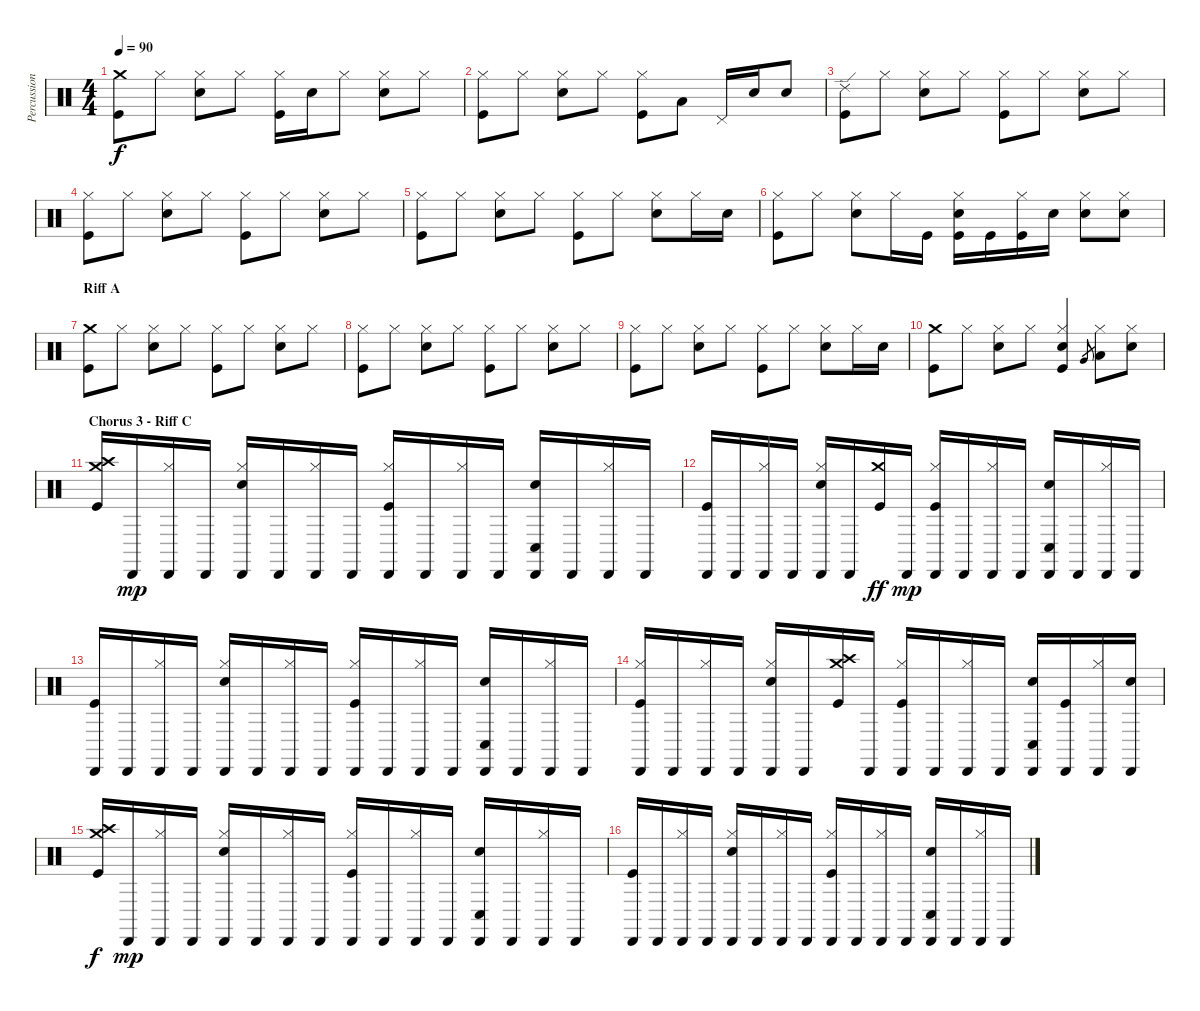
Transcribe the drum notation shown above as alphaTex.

\track ("Percussion (DK 0)" "Percussion") {instrument percussion}
\staff {score}
\articulation defaults
\ts (4 4)
\tempo 90
\clef neutral
\ks c
("Crash medium (hit)" "Kick (hit)").8{dy f} "Hi-Hat (closed)".8 ("Hi-Hat (closed)" "Electric Snare (hit)").8 "Hi-Hat (closed)".8 ("Hi-Hat (closed)" "Kick (hit)").16 "Electric Snare (hit)".16 "Hi-Hat (closed)".8 ("Hi-Hat (closed)" "Electric Snare (hit)").8 "Hi-Hat (closed)".8 |
("Hi-Hat (closed)" "Kick (hit)").8 "Hi-Hat (closed)".8 ("Hi-Hat (closed)" "Electric Snare (hit)").8 "Hi-Hat (closed)".8 ("Hi-Hat (closed)" "Kick (hit)").8 "Low Tom (hit)".8 "Pedal Hi-Hat (hit)".16 "Electric Snare (hit)".16 "Electric Snare (hit)".8 |
\section ("" "")
("Ride (edge) 2" "Kick (hit)").8 "Hi-Hat (closed)".8 ("Hi-Hat (closed)" "Electric Snare (hit)").8 "Hi-Hat (closed)".8 ("Hi-Hat (closed)" "Kick (hit)").8 "Hi-Hat (closed)".8 ("Hi-Hat (closed)" "Electric Snare (hit)").8 "Hi-Hat (closed)".8 |
("Hi-Hat (closed)" "Kick (hit)").8 "Hi-Hat (closed)".8 ("Hi-Hat (closed)" "Electric Snare (hit)").8 "Hi-Hat (closed)".8 ("Hi-Hat (closed)" "Kick (hit)").8 "Hi-Hat (closed)".8 ("Hi-Hat (closed)" "Electric Snare (hit)").8 "Hi-Hat (closed)".8 |
("Hi-Hat (closed)" "Kick (hit)").8 "Hi-Hat (closed)".8 ("Hi-Hat (closed)" "Electric Snare (hit)").8 "Hi-Hat (closed)".8 ("Hi-Hat (closed)" "Kick (hit)").8 "Hi-Hat (closed)".8 ("Hi-Hat (closed)" "Electric Snare (hit)").8 "Hi-Hat (closed)".16 "Electric Snare (hit)".16 |
("Hi-Hat (closed)" "Kick (hit)").8 "Hi-Hat (closed)".8 ("Hi-Hat (closed)" "Electric Snare (hit)").8 "Hi-Hat (closed)".16 "Kick (hit)".16 ("Hi-Hat (closed)" "Electric Snare (hit)" "Kick (hit)").16 "Kick (hit)".16 ("Hi-Hat (closed)" "Kick (hit)").16 "Electric Snare (hit)".16 ("Hi-Hat (closed)" "Electric Snare (hit)").8 ("Hi-Hat (closed)" "Electric Snare (hit)").8 |
\section ("" "Riff A")
("Crash medium (hit)" "Kick (hit)").8 "Hi-Hat (closed)".8 ("Hi-Hat (closed)" "Electric Snare (hit)").8 "Hi-Hat (closed)".8 ("Hi-Hat (closed)" "Kick (hit)").8 "Hi-Hat (closed)".8 ("Hi-Hat (closed)" "Electric Snare (hit)").8 "Hi-Hat (closed)".8 |
("Hi-Hat (closed)" "Kick (hit)").8 "Hi-Hat (closed)".8 ("Hi-Hat (closed)" "Electric Snare (hit)").8 "Hi-Hat (closed)".8 ("Hi-Hat (closed)" "Kick (hit)").8 "Hi-Hat (closed)".8 ("Hi-Hat (closed)" "Electric Snare (hit)").8 "Hi-Hat (closed)".8 |
("Hi-Hat (closed)" "Kick (hit)").8 "Hi-Hat (closed)".8 ("Hi-Hat (closed)" "Electric Snare (hit)").8 "Hi-Hat (closed)".8 ("Hi-Hat (closed)" "Kick (hit)").8 "Hi-Hat (closed)".8 ("Hi-Hat (closed)" "Electric Snare (hit)").8 "Hi-Hat (closed)".16 "Electric Snare (hit)".16 |
("Crash medium (hit)" "Kick (hit)").8 "Hi-Hat (closed)".8 ("Hi-Hat (closed)" "Electric Snare (hit)").8 "Hi-Hat (closed)".8 ("Hi-Hat (closed)" "Electric Snare (hit)" "Kick (hit)").4 "Very Low Tom (hit)".8{gr} ("Hi-Hat (closed)" "Low Tom (hit)").8 ("Hi-Hat (closed)" "Electric Snare (hit)").8 |
\section ("" "Chorus 3 - Riff C")
("Crash medium (hit)" "Crash high (hit)" "Kick (hit)").16 "Cabasa (hit)".16{dy mp} ("Cabasa (hit)" "Hi-Hat (closed)").16 "Cabasa (hit)".16 ("Cabasa (hit)" "Hi-Hat (closed)" "Electric Snare (hit)").16 "Cabasa (hit)".16 ("Cabasa (hit)" "Hi-Hat (closed)").16 "Cabasa (hit)".16 ("Cabasa (hit)" "Hi-Hat (closed)" "Kick (hit)").16 "Cabasa (hit)".16 ("Cabasa (hit)" "Hi-Hat (closed)").16 "Cabasa (hit)".16 ("Cabasa (hit)" "Conga low (hit)" "Electric Snare (hit)").16 "Cabasa (hit)".16 ("Cabasa (hit)" "Hi-Hat (closed)").16 "Cabasa (hit)".16 |
("Cabasa (hit)" "Kick (hit)").16 "Cabasa (hit)".16 ("Cabasa (hit)" "Hi-Hat (closed)").16 "Cabasa (hit)".16 ("Cabasa (hit)" "Hi-Hat (closed)" "Electric Snare (hit)").16 "Cabasa (hit)".16 ("Crash medium (hit)" "Kick (hit)").16{dy ff} "Cabasa (hit)".16{dy mp} ("Cabasa (hit)" "Hi-Hat (closed)" "Kick (hit)").16 "Cabasa (hit)".16 ("Cabasa (hit)" "Hi-Hat (closed)").16 "Cabasa (hit)".16 ("Cabasa (hit)" "Conga low (hit)" "Electric Snare (hit)").16 "Cabasa (hit)".16 ("Cabasa (hit)" "Hi-Hat (closed)").16 "Cabasa (hit)".16 |
("Cabasa (hit)" "Kick (hit)").16 "Cabasa (hit)".16 ("Cabasa (hit)" "Hi-Hat (closed)").16 "Cabasa (hit)".16 ("Cabasa (hit)" "Hi-Hat (closed)" "Electric Snare (hit)").16 "Cabasa (hit)".16 ("Cabasa (hit)" "Hi-Hat (closed)").16 "Cabasa (hit)".16 ("Cabasa (hit)" "Hi-Hat (closed)" "Kick (hit)").16 "Cabasa (hit)".16 ("Cabasa (hit)" "Hi-Hat (closed)").16 "Cabasa (hit)".16 ("Cabasa (hit)" "Conga low (hit)" "Electric Snare (hit)").16 "Cabasa (hit)".16 ("Cabasa (hit)" "Hi-Hat (closed)").16 "Cabasa (hit)".16 |
("Cabasa (hit)" "Hi-Hat (closed)" "Kick (hit)").16 "Cabasa (hit)".16 ("Cabasa (hit)" "Hi-Hat (closed)").16 "Cabasa (hit)".16 ("Cabasa (hit)" "Hi-Hat (closed)" "Electric Snare (hit)").16 "Cabasa (hit)".16 ("Crash high (hit)" "Crash medium (hit)" "Kick (hit)").16 "Cabasa (hit)".16 ("Cabasa (hit)" "Hi-Hat (closed)" "Kick (hit)").16 "Cabasa (hit)".16 ("Cabasa (hit)" "Hi-Hat (closed)").16 "Cabasa (hit)".16 ("Cabasa (hit)" "Conga low (hit)" "Electric Snare (hit)").16 ("Cabasa (hit)" "Kick (hit)").16 ("Cabasa (hit)" "Hi-Hat (closed)").16 ("Cabasa (hit)" "Electric Snare (hit)").16 |
("Crash medium (hit)" "Crash high (hit)" "Kick (hit)").16{dy f} "Cabasa (hit)".16{dy mp} ("Cabasa (hit)" "Hi-Hat (closed)").16 "Cabasa (hit)".16 ("Cabasa (hit)" "Hi-Hat (closed)" "Electric Snare (hit)").16 "Cabasa (hit)".16 ("Cabasa (hit)" "Hi-Hat (closed)").16 "Cabasa (hit)".16 ("Cabasa (hit)" "Hi-Hat (closed)" "Kick (hit)").16 "Cabasa (hit)".16 ("Cabasa (hit)" "Hi-Hat (closed)").16 "Cabasa (hit)".16 ("Cabasa (hit)" "Conga low (hit)" "Electric Snare (hit)").16 "Cabasa (hit)".16 ("Cabasa (hit)" "Hi-Hat (closed)").16 "Cabasa (hit)".16 |
("Cabasa (hit)" "Kick (hit)").16 "Cabasa (hit)".16 ("Cabasa (hit)" "Hi-Hat (closed)").16 "Cabasa (hit)".16 ("Cabasa (hit)" "Hi-Hat (closed)" "Electric Snare (hit)").16 "Cabasa (hit)".16 ("Cabasa (hit)" "Hi-Hat (closed)").16 "Cabasa (hit)".16 ("Cabasa (hit)" "Hi-Hat (closed)" "Kick (hit)").16 "Cabasa (hit)".16 ("Cabasa (hit)" "Hi-Hat (closed)").16 "Cabasa (hit)".16 ("Cabasa (hit)" "Conga low (hit)" "Electric Snare (hit)").16 "Cabasa (hit)".16 ("Cabasa (hit)" "Hi-Hat (closed)").16 "Cabasa (hit)".16
